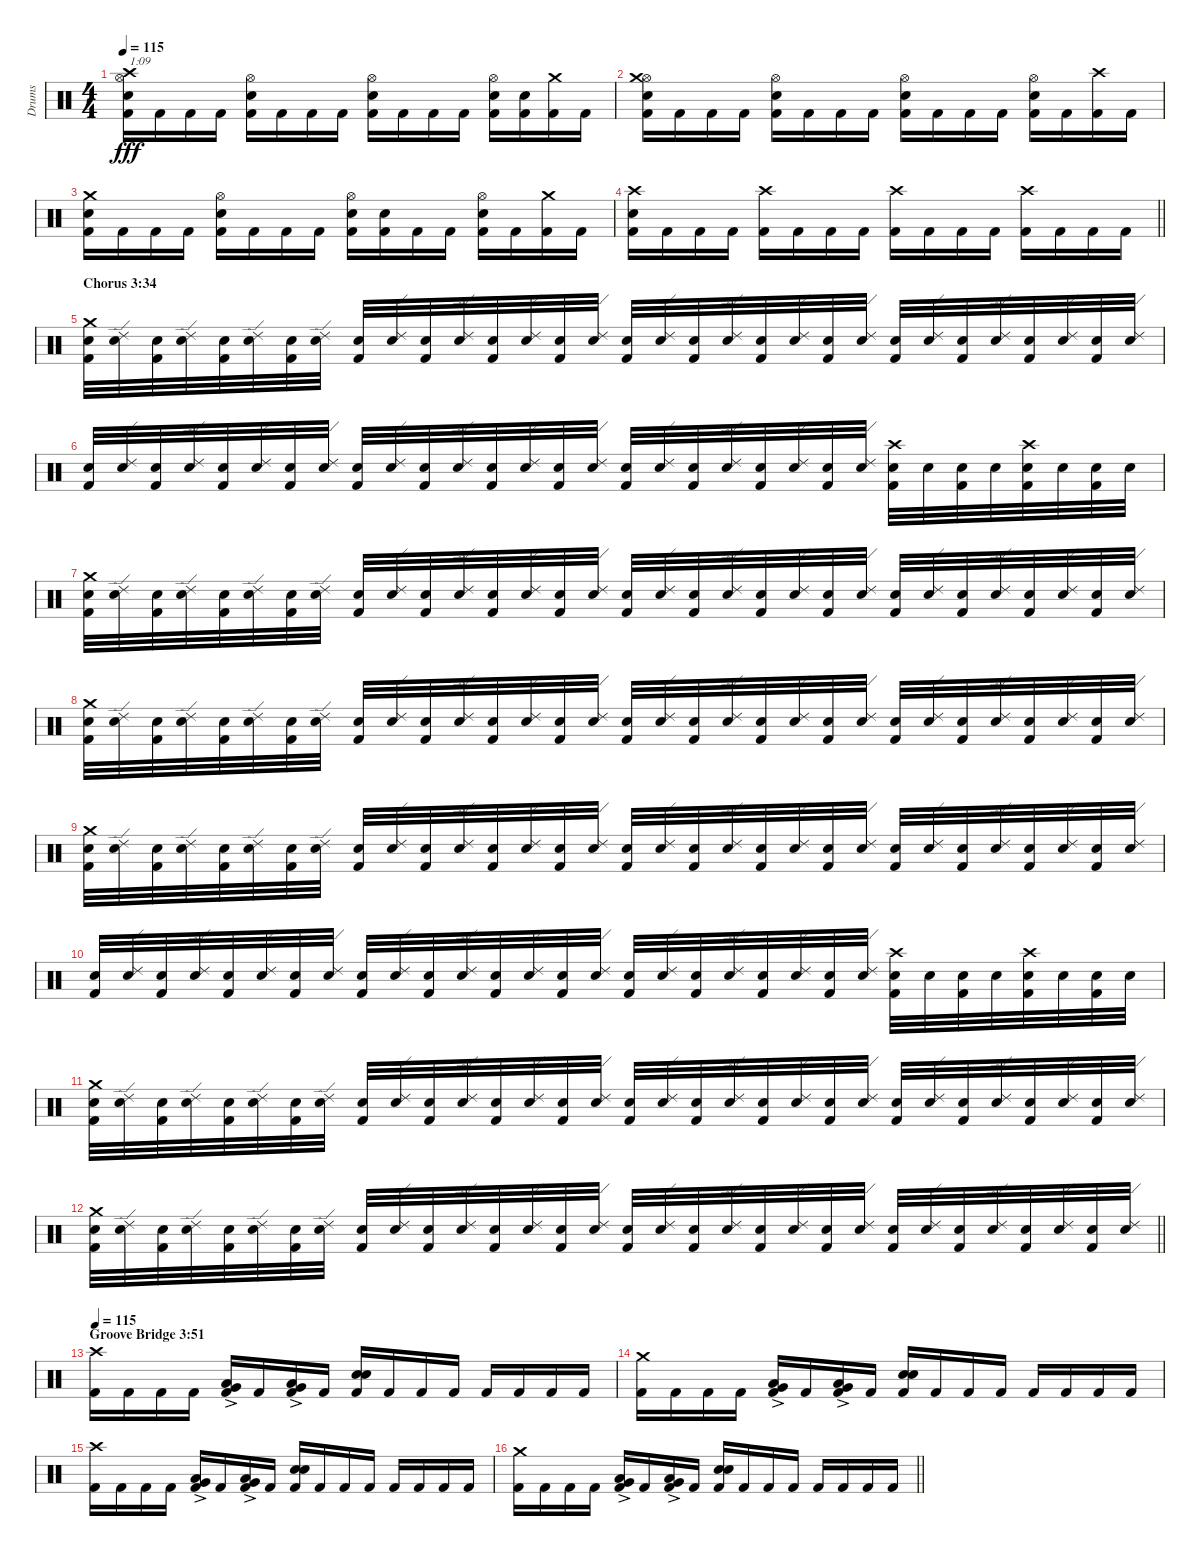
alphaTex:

\track ("Drums" "Drums") {instrument percussion}
\staff {score}
\articulation defaults
\ts (4 4)
\tempo 115
\clef neutral
\ks c
("Kick (hit) 2" "Electric Snare (hit)" "Hi-Hat (open)" "Crash high (hit)").16{txt "1:09" dy fff} "Kick (hit) 2".16 "Kick (hit) 2".16 "Kick (hit) 2".16 ("Kick (hit) 2" "Electric Snare (hit)" "Hi-Hat (open)").16 "Kick (hit) 2".16 "Kick (hit) 2".16 "Kick (hit) 2".16 ("Kick (hit) 2" "Electric Snare (hit)" "Hi-Hat (open)").16 "Kick (hit) 2".16 "Kick (hit) 2".16 "Kick (hit) 2".16 ("Kick (hit) 2" "Electric Snare (hit)" "Hi-Hat (open)").16 ("Kick (hit) 2" "Electric Snare (hit)").16 ("Kick (hit) 2" "Crash medium (hit)").16 "Kick (hit) 2".16 |
("Kick (hit) 2" "Electric Snare (hit)" "Hi-Hat (open)" "Crash medium (hit)").16 "Kick (hit) 2".16 "Kick (hit) 2".16 "Kick (hit) 2".16 ("Kick (hit) 2" "Electric Snare (hit)" "Hi-Hat (open)").16 "Kick (hit) 2".16 "Kick (hit) 2".16 "Kick (hit) 2".16 ("Kick (hit) 2" "Electric Snare (hit)" "Hi-Hat (open)").16 "Kick (hit) 2".16 "Kick (hit) 2".16 "Kick (hit) 2".16 ("Kick (hit) 2" "Electric Snare (hit)" "Hi-Hat (open)").16 "Kick (hit) 2".16 ("Kick (hit) 2" "Crash high (hit)").16 "Kick (hit) 2".16 |
("Kick (hit) 2" "Electric Snare (hit)" "Crash medium (hit)").16 "Kick (hit) 2".16 "Kick (hit) 2".16 "Kick (hit) 2".16 ("Kick (hit) 2" "Electric Snare (hit)" "Hi-Hat (open)").16 "Kick (hit) 2".16 "Kick (hit) 2".16 "Kick (hit) 2".16 ("Kick (hit) 2" "Electric Snare (hit)" "Hi-Hat (open)").16 ("Kick (hit) 2" "Electric Snare (hit)").16 "Kick (hit) 2".16 "Kick (hit) 2".16 ("Kick (hit) 2" "Electric Snare (hit)" "Hi-Hat (open)").16 "Kick (hit) 2".16 ("Kick (hit) 2" "Crash medium (hit)").16 "Kick (hit) 2".16 |
\barLineRight lightlight
("Kick (hit) 2" "Electric Snare (hit)" "Crash high (hit)").16 "Kick (hit) 2".16 "Kick (hit) 2".16 "Kick (hit) 2".16 ("Kick (hit) 2" "Crash high (hit)").16 "Kick (hit) 2".16 "Kick (hit) 2".16 "Kick (hit) 2".16 ("Kick (hit) 2" "Crash high (hit)").16 "Kick (hit) 2".16 "Kick (hit) 2".16 "Kick (hit) 2".16 ("Kick (hit) 2" "Crash high (hit)").16 "Kick (hit) 2".16 "Kick (hit) 2".16 "Kick (hit) 2".16 |
\section ("" "Chorus 3:34")
("Kick (hit) 2" "Electric Snare (hit)" "Crash medium (hit)").32 ("Electric Snare (hit)" "Ride (edge) 2").32 ("Kick (hit) 2" "Electric Snare (hit)").32 ("Electric Snare (hit)" "Ride (edge) 2").32 ("Kick (hit) 2" "Electric Snare (hit)").32 ("Electric Snare (hit)" "Ride (edge) 2").32 ("Kick (hit) 2" "Electric Snare (hit)").32 ("Electric Snare (hit)" "Ride (edge) 2").32 ("Kick (hit) 2" "Electric Snare (hit)").32 ("Electric Snare (hit)" "Ride (edge) 2").32 ("Kick (hit) 2" "Electric Snare (hit)").32 ("Electric Snare (hit)" "Ride (edge) 2").32 ("Kick (hit) 2" "Electric Snare (hit)").32 ("Electric Snare (hit)" "Ride (edge) 2").32 ("Kick (hit) 2" "Electric Snare (hit)").32 ("Electric Snare (hit)" "Ride (edge) 2").32 ("Kick (hit) 2" "Electric Snare (hit)").32 ("Electric Snare (hit)" "Ride (edge) 2").32 ("Kick (hit) 2" "Electric Snare (hit)").32 ("Electric Snare (hit)" "Ride (edge) 2").32 ("Kick (hit) 2" "Electric Snare (hit)").32 ("Electric Snare (hit)" "Ride (edge) 2").32 ("Kick (hit) 2" "Electric Snare (hit)").32 ("Electric Snare (hit)" "Ride (edge) 2").32 ("Kick (hit) 2" "Electric Snare (hit)").32 ("Electric Snare (hit)" "Ride (edge) 2").32 ("Kick (hit) 2" "Electric Snare (hit)").32 ("Electric Snare (hit)" "Ride (edge) 2").32 ("Kick (hit) 2" "Electric Snare (hit)").32 ("Electric Snare (hit)" "Ride (edge) 2").32 ("Kick (hit) 2" "Electric Snare (hit)").32 ("Electric Snare (hit)" "Ride (edge) 2").32 |
("Kick (hit) 2" "Electric Snare (hit)").32 ("Electric Snare (hit)" "Ride (edge) 2").32 ("Kick (hit) 2" "Electric Snare (hit)").32 ("Electric Snare (hit)" "Ride (edge) 2").32 ("Kick (hit) 2" "Electric Snare (hit)").32 ("Electric Snare (hit)" "Ride (edge) 2").32 ("Kick (hit) 2" "Electric Snare (hit)").32 ("Electric Snare (hit)" "Ride (edge) 2").32 ("Kick (hit) 2" "Electric Snare (hit)").32 ("Electric Snare (hit)" "Ride (edge) 2").32 ("Kick (hit) 2" "Electric Snare (hit)").32 ("Electric Snare (hit)" "Ride (edge) 2").32 ("Kick (hit) 2" "Electric Snare (hit)").32 ("Electric Snare (hit)" "Ride (edge) 2").32 ("Kick (hit) 2" "Electric Snare (hit)").32 ("Electric Snare (hit)" "Ride (edge) 2").32 ("Kick (hit) 2" "Electric Snare (hit)").32 ("Electric Snare (hit)" "Ride (edge) 2").32 ("Kick (hit) 2" "Electric Snare (hit)").32 ("Electric Snare (hit)" "Ride (edge) 2").32 ("Kick (hit) 2" "Electric Snare (hit)").32 ("Electric Snare (hit)" "Ride (edge) 2").32 ("Kick (hit) 2" "Electric Snare (hit)").32 ("Electric Snare (hit)" "Ride (edge) 2").32 ("Kick (hit) 2" "Electric Snare (hit)" "Crash high (hit)").32 "Electric Snare (hit)".32 ("Kick (hit) 2" "Electric Snare (hit)").32 "Electric Snare (hit)".32 ("Kick (hit) 2" "Electric Snare (hit)" "Crash high (hit)").32 "Electric Snare (hit)".32 ("Kick (hit) 2" "Electric Snare (hit)").32 "Electric Snare (hit)".32 |
("Kick (hit) 2" "Electric Snare (hit)" "Crash medium (hit)").32 ("Electric Snare (hit)" "Ride (edge) 2").32 ("Kick (hit) 2" "Electric Snare (hit)").32 ("Electric Snare (hit)" "Ride (edge) 2").32 ("Kick (hit) 2" "Electric Snare (hit)").32 ("Electric Snare (hit)" "Ride (edge) 2").32 ("Kick (hit) 2" "Electric Snare (hit)").32 ("Electric Snare (hit)" "Ride (edge) 2").32 ("Kick (hit) 2" "Electric Snare (hit)").32 ("Electric Snare (hit)" "Ride (edge) 2").32 ("Kick (hit) 2" "Electric Snare (hit)").32 ("Electric Snare (hit)" "Ride (edge) 2").32 ("Kick (hit) 2" "Electric Snare (hit)").32 ("Electric Snare (hit)" "Ride (edge) 2").32 ("Kick (hit) 2" "Electric Snare (hit)").32 ("Electric Snare (hit)" "Ride (edge) 2").32 ("Kick (hit) 2" "Electric Snare (hit)").32 ("Electric Snare (hit)" "Ride (edge) 2").32 ("Kick (hit) 2" "Electric Snare (hit)").32 ("Electric Snare (hit)" "Ride (edge) 2").32 ("Kick (hit) 2" "Electric Snare (hit)").32 ("Electric Snare (hit)" "Ride (edge) 2").32 ("Kick (hit) 2" "Electric Snare (hit)").32 ("Electric Snare (hit)" "Ride (edge) 2").32 ("Kick (hit) 2" "Electric Snare (hit)").32 ("Electric Snare (hit)" "Ride (edge) 2").32 ("Kick (hit) 2" "Electric Snare (hit)").32 ("Electric Snare (hit)" "Ride (edge) 2").32 ("Kick (hit) 2" "Electric Snare (hit)").32 ("Electric Snare (hit)" "Ride (edge) 2").32 ("Kick (hit) 2" "Electric Snare (hit)").32 ("Electric Snare (hit)" "Ride (edge) 2").32 |
("Kick (hit) 2" "Electric Snare (hit)" "Crash medium (hit)").32 ("Electric Snare (hit)" "Ride (edge) 2").32 ("Kick (hit) 2" "Electric Snare (hit)").32 ("Electric Snare (hit)" "Ride (edge) 2").32 ("Kick (hit) 2" "Electric Snare (hit)").32 ("Electric Snare (hit)" "Ride (edge) 2").32 ("Kick (hit) 2" "Electric Snare (hit)").32 ("Electric Snare (hit)" "Ride (edge) 2").32 ("Kick (hit) 2" "Electric Snare (hit)").32 ("Electric Snare (hit)" "Ride (edge) 2").32 ("Kick (hit) 2" "Electric Snare (hit)").32 ("Electric Snare (hit)" "Ride (edge) 2").32 ("Kick (hit) 2" "Electric Snare (hit)").32 ("Electric Snare (hit)" "Ride (edge) 2").32 ("Kick (hit) 2" "Electric Snare (hit)").32 ("Electric Snare (hit)" "Ride (edge) 2").32 ("Kick (hit) 2" "Electric Snare (hit)").32 ("Electric Snare (hit)" "Ride (edge) 2").32 ("Kick (hit) 2" "Electric Snare (hit)").32 ("Electric Snare (hit)" "Ride (edge) 2").32 ("Kick (hit) 2" "Electric Snare (hit)").32 ("Electric Snare (hit)" "Ride (edge) 2").32 ("Kick (hit) 2" "Electric Snare (hit)").32 ("Electric Snare (hit)" "Ride (edge) 2").32 ("Kick (hit) 2" "Electric Snare (hit)").32 ("Electric Snare (hit)" "Ride (edge) 2").32 ("Kick (hit) 2" "Electric Snare (hit)").32 ("Electric Snare (hit)" "Ride (edge) 2").32 ("Kick (hit) 2" "Electric Snare (hit)").32 ("Electric Snare (hit)" "Ride (edge) 2").32 ("Kick (hit) 2" "Electric Snare (hit)").32 ("Electric Snare (hit)" "Ride (edge) 2").32 |
("Kick (hit) 2" "Electric Snare (hit)" "Crash medium (hit)").32 ("Electric Snare (hit)" "Ride (edge) 2").32 ("Kick (hit) 2" "Electric Snare (hit)").32 ("Electric Snare (hit)" "Ride (edge) 2").32 ("Kick (hit) 2" "Electric Snare (hit)").32 ("Electric Snare (hit)" "Ride (edge) 2").32 ("Kick (hit) 2" "Electric Snare (hit)").32 ("Electric Snare (hit)" "Ride (edge) 2").32 ("Kick (hit) 2" "Electric Snare (hit)").32 ("Electric Snare (hit)" "Ride (edge) 2").32 ("Kick (hit) 2" "Electric Snare (hit)").32 ("Electric Snare (hit)" "Ride (edge) 2").32 ("Kick (hit) 2" "Electric Snare (hit)").32 ("Electric Snare (hit)" "Ride (edge) 2").32 ("Kick (hit) 2" "Electric Snare (hit)").32 ("Electric Snare (hit)" "Ride (edge) 2").32 ("Kick (hit) 2" "Electric Snare (hit)").32 ("Electric Snare (hit)" "Ride (edge) 2").32 ("Kick (hit) 2" "Electric Snare (hit)").32 ("Electric Snare (hit)" "Ride (edge) 2").32 ("Kick (hit) 2" "Electric Snare (hit)").32 ("Electric Snare (hit)" "Ride (edge) 2").32 ("Kick (hit) 2" "Electric Snare (hit)").32 ("Electric Snare (hit)" "Ride (edge) 2").32 ("Kick (hit) 2" "Electric Snare (hit)").32 ("Electric Snare (hit)" "Ride (edge) 2").32 ("Kick (hit) 2" "Electric Snare (hit)").32 ("Electric Snare (hit)" "Ride (edge) 2").32 ("Kick (hit) 2" "Electric Snare (hit)").32 ("Electric Snare (hit)" "Ride (edge) 2").32 ("Kick (hit) 2" "Electric Snare (hit)").32 ("Electric Snare (hit)" "Ride (edge) 2").32 |
("Kick (hit) 2" "Electric Snare (hit)").32 ("Electric Snare (hit)" "Ride (edge) 2").32 ("Kick (hit) 2" "Electric Snare (hit)").32 ("Electric Snare (hit)" "Ride (edge) 2").32 ("Kick (hit) 2" "Electric Snare (hit)").32 ("Electric Snare (hit)" "Ride (edge) 2").32 ("Kick (hit) 2" "Electric Snare (hit)").32 ("Electric Snare (hit)" "Ride (edge) 2").32 ("Kick (hit) 2" "Electric Snare (hit)").32 ("Electric Snare (hit)" "Ride (edge) 2").32 ("Kick (hit) 2" "Electric Snare (hit)").32 ("Electric Snare (hit)" "Ride (edge) 2").32 ("Kick (hit) 2" "Electric Snare (hit)").32 ("Electric Snare (hit)" "Ride (edge) 2").32 ("Kick (hit) 2" "Electric Snare (hit)").32 ("Electric Snare (hit)" "Ride (edge) 2").32 ("Kick (hit) 2" "Electric Snare (hit)").32 ("Electric Snare (hit)" "Ride (edge) 2").32 ("Kick (hit) 2" "Electric Snare (hit)").32 ("Electric Snare (hit)" "Ride (edge) 2").32 ("Kick (hit) 2" "Electric Snare (hit)").32 ("Electric Snare (hit)" "Ride (edge) 2").32 ("Kick (hit) 2" "Electric Snare (hit)").32 ("Electric Snare (hit)" "Ride (edge) 2").32 ("Kick (hit) 2" "Electric Snare (hit)" "Crash high (hit)").32 "Electric Snare (hit)".32 ("Kick (hit) 2" "Electric Snare (hit)").32 "Electric Snare (hit)".32 ("Kick (hit) 2" "Electric Snare (hit)" "Crash high (hit)").32 "Electric Snare (hit)".32 ("Kick (hit) 2" "Electric Snare (hit)").32 "Electric Snare (hit)".32 |
("Kick (hit) 2" "Electric Snare (hit)" "Crash medium (hit)").32 ("Electric Snare (hit)" "Ride (edge) 2").32 ("Kick (hit) 2" "Electric Snare (hit)").32 ("Electric Snare (hit)" "Ride (edge) 2").32 ("Kick (hit) 2" "Electric Snare (hit)").32 ("Electric Snare (hit)" "Ride (edge) 2").32 ("Kick (hit) 2" "Electric Snare (hit)").32 ("Electric Snare (hit)" "Ride (edge) 2").32 ("Kick (hit) 2" "Electric Snare (hit)").32 ("Electric Snare (hit)" "Ride (edge) 2").32 ("Kick (hit) 2" "Electric Snare (hit)").32 ("Electric Snare (hit)" "Ride (edge) 2").32 ("Kick (hit) 2" "Electric Snare (hit)").32 ("Electric Snare (hit)" "Ride (edge) 2").32 ("Kick (hit) 2" "Electric Snare (hit)").32 ("Electric Snare (hit)" "Ride (edge) 2").32 ("Kick (hit) 2" "Electric Snare (hit)").32 ("Electric Snare (hit)" "Ride (edge) 2").32 ("Kick (hit) 2" "Electric Snare (hit)").32 ("Electric Snare (hit)" "Ride (edge) 2").32 ("Kick (hit) 2" "Electric Snare (hit)").32 ("Electric Snare (hit)" "Ride (edge) 2").32 ("Kick (hit) 2" "Electric Snare (hit)").32 ("Electric Snare (hit)" "Ride (edge) 2").32 ("Kick (hit) 2" "Electric Snare (hit)").32 ("Electric Snare (hit)" "Ride (edge) 2").32 ("Kick (hit) 2" "Electric Snare (hit)").32 ("Electric Snare (hit)" "Ride (edge) 2").32 ("Kick (hit) 2" "Electric Snare (hit)").32 ("Electric Snare (hit)" "Ride (edge) 2").32 ("Kick (hit) 2" "Electric Snare (hit)").32 ("Electric Snare (hit)" "Ride (edge) 2").32 |
\barLineRight lightlight
("Kick (hit) 2" "Electric Snare (hit)" "Crash medium (hit)").32 ("Electric Snare (hit)" "Ride (edge) 2").32 ("Kick (hit) 2" "Electric Snare (hit)").32 ("Electric Snare (hit)" "Ride (edge) 2").32 ("Kick (hit) 2" "Electric Snare (hit)").32 ("Electric Snare (hit)" "Ride (edge) 2").32 ("Kick (hit) 2" "Electric Snare (hit)").32 ("Electric Snare (hit)" "Ride (edge) 2").32 ("Kick (hit) 2" "Electric Snare (hit)").32 ("Electric Snare (hit)" "Ride (edge) 2").32 ("Kick (hit) 2" "Electric Snare (hit)").32 ("Electric Snare (hit)" "Ride (edge) 2").32 ("Kick (hit) 2" "Electric Snare (hit)").32 ("Electric Snare (hit)" "Ride (edge) 2").32 ("Kick (hit) 2" "Electric Snare (hit)").32 ("Electric Snare (hit)" "Ride (edge) 2").32 ("Kick (hit) 2" "Electric Snare (hit)").32 ("Electric Snare (hit)" "Ride (edge) 2").32 ("Kick (hit) 2" "Electric Snare (hit)").32 ("Electric Snare (hit)" "Ride (edge) 2").32 ("Kick (hit) 2" "Electric Snare (hit)").32 ("Electric Snare (hit)" "Ride (edge) 2").32 ("Kick (hit) 2" "Electric Snare (hit)").32 ("Electric Snare (hit)" "Ride (edge) 2").32 ("Kick (hit) 2" "Electric Snare (hit)").32 ("Electric Snare (hit)" "Ride (edge) 2").32 ("Kick (hit) 2" "Electric Snare (hit)").32 ("Electric Snare (hit)" "Ride (edge) 2").32 ("Kick (hit) 2" "Electric Snare (hit)").32 ("Electric Snare (hit)" "Ride (edge) 2").32 ("Kick (hit) 2" "Electric Snare (hit)").32 ("Electric Snare (hit)" "Ride (edge) 2").32 |
\section ("" "Groove Bridge 3:51")
\tempo 115
("Kick (hit) 2" "Crash high (hit)").16 "Kick (hit) 2".16 "Kick (hit) 2".16 "Kick (hit) 2".16 ("Kick (hit) 2" "Very Low Tom (hit)"{ac} "Low Tom (hit)"{ac}).16 "Kick (hit) 2".16 ("Kick (hit) 2" "Very Low Tom (hit)"{ac} "Low Tom (hit)"{ac}).16 "Kick (hit) 2".16 ("Kick (hit) 2" "Snare (hit) 2" "Electric Snare (hit)").16 "Kick (hit) 2".16 "Kick (hit) 2".16 "Kick (hit) 2".16 "Kick (hit) 2".16 "Kick (hit) 2".16 "Kick (hit) 2".16 "Kick (hit) 2".16 |
("Kick (hit) 2" "Crash medium (hit)").16 "Kick (hit) 2".16 "Kick (hit) 2".16 "Kick (hit) 2".16 ("Kick (hit) 2" "Very Low Tom (hit)"{ac} "Low Tom (hit)"{ac}).16 "Kick (hit) 2".16 ("Kick (hit) 2" "Very Low Tom (hit)"{ac} "Low Tom (hit)"{ac}).16 "Kick (hit) 2".16 ("Kick (hit) 2" "Snare (hit) 2" "Electric Snare (hit)").16 "Kick (hit) 2".16 "Kick (hit) 2".16 "Kick (hit) 2".16 "Kick (hit) 2".16 "Kick (hit) 2".16 "Kick (hit) 2".16 "Kick (hit) 2".16 |
("Kick (hit) 2" "Crash high (hit)").16 "Kick (hit) 2".16 "Kick (hit) 2".16 "Kick (hit) 2".16 ("Kick (hit) 2" "Very Low Tom (hit)"{ac} "Low Tom (hit)"{ac}).16 "Kick (hit) 2".16 ("Kick (hit) 2" "Very Low Tom (hit)"{ac} "Low Tom (hit)"{ac}).16 "Kick (hit) 2".16 ("Kick (hit) 2" "Snare (hit) 2" "Electric Snare (hit)").16 "Kick (hit) 2".16 "Kick (hit) 2".16 "Kick (hit) 2".16 "Kick (hit) 2".16 "Kick (hit) 2".16 "Kick (hit) 2".16 "Kick (hit) 2".16 |
\barLineRight lightlight
("Kick (hit) 2" "Crash medium (hit)").16 "Kick (hit) 2".16 "Kick (hit) 2".16 "Kick (hit) 2".16 ("Kick (hit) 2" "Very Low Tom (hit)"{ac} "Low Tom (hit)"{ac}).16 "Kick (hit) 2".16 ("Kick (hit) 2" "Very Low Tom (hit)"{ac} "Low Tom (hit)"{ac}).16 "Kick (hit) 2".16 ("Kick (hit) 2" "Snare (hit) 2" "Electric Snare (hit)").16 "Kick (hit) 2".16 "Kick (hit) 2".16 "Kick (hit) 2".16 "Kick (hit) 2".16 "Kick (hit) 2".16 "Kick (hit) 2".16 "Kick (hit) 2".16
